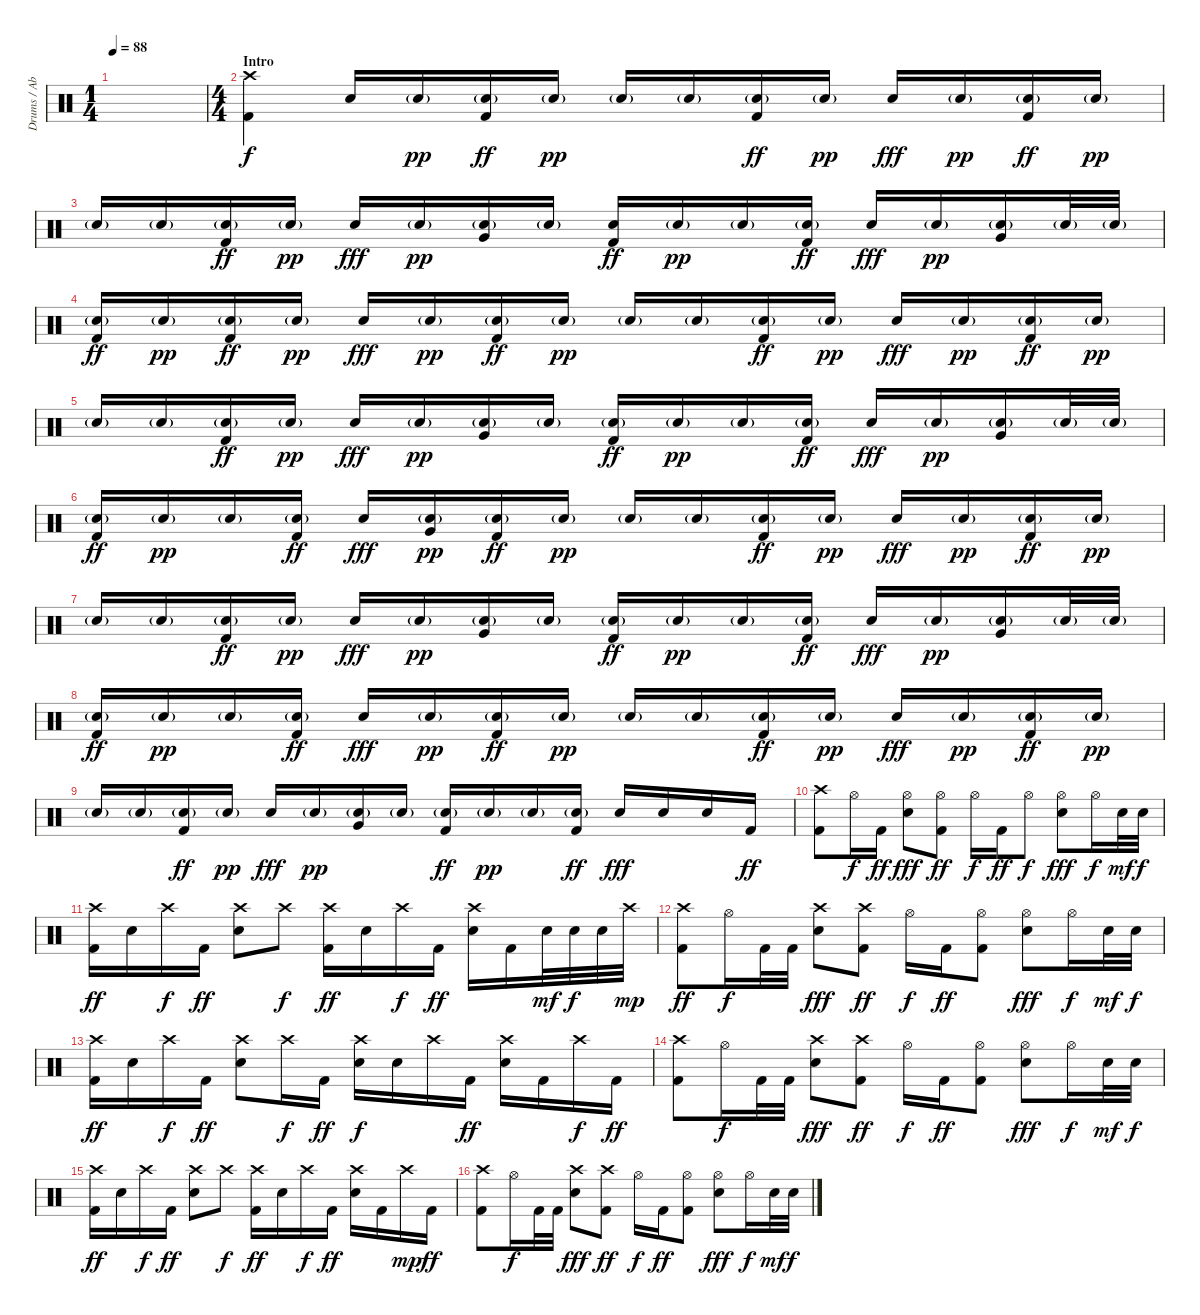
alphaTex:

\track ("Drums / Abe Cunningham" "Drums / Ab") {instrument percussion}
\staff {score}
\articulation defaults
\ts (1 4)
\tempo 88
\clef neutral
\ks c
|
\ts (4 4)
\section ("" "Intro")
("Crash high (hit)" "Kick (hit) 2").4 "Electric Snare (hit)".16 "Electric Snare (hit)"{g}.16{dy pp} ("Electric Snare (hit)"{g} "Kick (hit) 2").16{dy ff} "Electric Snare (hit)"{g}.16{dy pp} "Electric Snare (hit)"{g}.16 "Electric Snare (hit)"{g}.16 ("Electric Snare (hit)"{g} "Kick (hit) 2").16{dy ff} "Electric Snare (hit)"{g}.16{dy pp} "Electric Snare (hit)".16{dy fff} "Electric Snare (hit)"{g}.16{dy pp} ("Electric Snare (hit)"{g} "Kick (hit) 2").16{dy ff} "Electric Snare (hit)"{g}.16{dy pp} |
"Electric Snare (hit)"{g}.16 "Electric Snare (hit)"{g}.16 ("Electric Snare (hit)"{g} "Kick (hit) 2").16{dy ff} "Electric Snare (hit)"{g}.16{dy pp} "Electric Snare (hit)".16{dy fff} "Electric Snare (hit)"{g}.16{dy pp} ("Electric Snare (hit)"{g} "Very Low Tom (hit)").16 "Electric Snare (hit)"{g}.16 ("Electric Snare (hit)" "Kick (hit) 2").16{dy ff} "Electric Snare (hit)"{g}.16{dy pp} "Electric Snare (hit)"{g}.16 ("Electric Snare (hit)"{g} "Kick (hit) 2").16{dy ff} "Electric Snare (hit)".16{dy fff} "Electric Snare (hit)"{g}.16{dy pp} ("Electric Snare (hit)"{g} "Very Low Tom (hit)").16 "Electric Snare (hit)"{g}.32 "Electric Snare (hit)"{g}.32 |
("Electric Snare (hit)"{g} "Kick (hit) 2").16{dy ff} "Electric Snare (hit)"{g}.16{dy pp} ("Electric Snare (hit)"{g} "Kick (hit) 2").16{dy ff} "Electric Snare (hit)"{g}.16{dy pp} "Electric Snare (hit)".16{dy fff} "Electric Snare (hit)"{g}.16{dy pp} ("Electric Snare (hit)"{g} "Kick (hit) 2").16{dy ff} "Electric Snare (hit)"{g}.16{dy pp} "Electric Snare (hit)"{g}.16 "Electric Snare (hit)"{g}.16 ("Electric Snare (hit)"{g} "Kick (hit) 2").16{dy ff} "Electric Snare (hit)"{g}.16{dy pp} "Electric Snare (hit)".16{dy fff} "Electric Snare (hit)"{g}.16{dy pp} ("Electric Snare (hit)"{g} "Kick (hit) 2").16{dy ff} "Electric Snare (hit)"{g}.16{dy pp} |
"Electric Snare (hit)"{g}.16 "Electric Snare (hit)"{g}.16 ("Electric Snare (hit)"{g} "Kick (hit) 2").16{dy ff} "Electric Snare (hit)"{g}.16{dy pp} "Electric Snare (hit)".16{dy fff} "Electric Snare (hit)"{g}.16{dy pp} ("Electric Snare (hit)"{g} "Very Low Tom (hit)").16 "Electric Snare (hit)"{g}.16 ("Electric Snare (hit)"{g} "Kick (hit) 2").16{dy ff} "Electric Snare (hit)"{g}.16{dy pp} "Electric Snare (hit)"{g}.16 ("Electric Snare (hit)"{g} "Kick (hit) 2").16{dy ff} "Electric Snare (hit)".16{dy fff} "Electric Snare (hit)"{g}.16{dy pp} ("Electric Snare (hit)"{g} "Very Low Tom (hit)").16 "Electric Snare (hit)"{g}.32 "Electric Snare (hit)"{g}.32 |
("Electric Snare (hit)"{g} "Kick (hit) 2").16{dy ff} "Electric Snare (hit)"{g}.16{dy pp} "Electric Snare (hit)"{g}.16 ("Electric Snare (hit)"{g} "Kick (hit) 2").16{dy ff} "Electric Snare (hit)".16{dy fff} ("Electric Snare (hit)"{g} "Very Low Tom (hit)").16{dy pp} ("Electric Snare (hit)"{g} "Kick (hit) 2").16{dy ff} "Electric Snare (hit)"{g}.16{dy pp} "Electric Snare (hit)"{g}.16 "Electric Snare (hit)"{g}.16 ("Electric Snare (hit)"{g} "Kick (hit) 2").16{dy ff} "Electric Snare (hit)"{g}.16{dy pp} "Electric Snare (hit)".16{dy fff} "Electric Snare (hit)"{g}.16{dy pp} ("Electric Snare (hit)"{g} "Kick (hit) 2").16{dy ff} "Electric Snare (hit)"{g}.16{dy pp} |
"Electric Snare (hit)"{g}.16 "Electric Snare (hit)"{g}.16 ("Electric Snare (hit)"{g} "Kick (hit) 2").16{dy ff} "Electric Snare (hit)"{g}.16{dy pp} "Electric Snare (hit)".16{dy fff} "Electric Snare (hit)"{g}.16{dy pp} ("Electric Snare (hit)"{g} "Very Low Tom (hit)").16 "Electric Snare (hit)"{g}.16 ("Electric Snare (hit)"{g} "Kick (hit) 2").16{dy ff} "Electric Snare (hit)"{g}.16{dy pp} "Electric Snare (hit)"{g}.16 ("Electric Snare (hit)"{g} "Kick (hit) 2").16{dy ff} "Electric Snare (hit)".16{dy fff} "Electric Snare (hit)"{g}.16{dy pp} ("Electric Snare (hit)"{g} "Very Low Tom (hit)").16 "Electric Snare (hit)"{g}.32 "Electric Snare (hit)"{g}.32 |
("Electric Snare (hit)"{g} "Kick (hit) 2").16{dy ff} "Electric Snare (hit)"{g}.16{dy pp} "Electric Snare (hit)"{g}.16 ("Electric Snare (hit)"{g} "Kick (hit) 2").16{dy ff} "Electric Snare (hit)".16{dy fff} "Electric Snare (hit)"{g}.16{dy pp} ("Electric Snare (hit)"{g} "Kick (hit) 2").16{dy ff} "Electric Snare (hit)"{g}.16{dy pp} "Electric Snare (hit)"{g}.16 "Electric Snare (hit)"{g}.16 ("Electric Snare (hit)"{g} "Kick (hit) 2").16{dy ff} "Electric Snare (hit)"{g}.16{dy pp} "Electric Snare (hit)".16{dy fff} "Electric Snare (hit)"{g}.16{dy pp} ("Electric Snare (hit)"{g} "Kick (hit) 2").16{dy ff} "Electric Snare (hit)"{g}.16{dy pp} |
"Electric Snare (hit)"{g}.16 "Electric Snare (hit)"{g}.16 ("Electric Snare (hit)"{g} "Kick (hit) 2").16{dy ff} "Electric Snare (hit)"{g}.16{dy pp} "Electric Snare (hit)".16{dy fff} "Electric Snare (hit)"{g}.16{dy pp} ("Electric Snare (hit)"{g} "Very Low Tom (hit)").16 "Electric Snare (hit)"{g}.16 ("Electric Snare (hit)"{g} "Kick (hit) 2").16{dy ff} "Electric Snare (hit)"{g}.16{dy pp} "Electric Snare (hit)"{g}.16 ("Electric Snare (hit)"{g} "Kick (hit) 2").16{dy ff} "Electric Snare (hit)".16{dy fff} "Electric Snare (hit)".16 "Electric Snare (hit)".16 "Kick (hit) 2".16{dy ff} |
("Crash high (hit)" "Kick (hit) 2").8 "Hi-Hat (open)".16{dy f} "Kick (hit) 2".16{dy ff} ("Hi-Hat (open)" "Electric Snare (hit)").8{dy fff} ("Hi-Hat (open)" "Kick (hit) 2").8{dy ff} "Hi-Hat (open)".16{dy f} "Kick (hit) 2".16{dy ff} "Hi-Hat (open)".8{dy f} ("Hi-Hat (open)" "Electric Snare (hit)").8{dy fff} "Hi-Hat (open)".16{dy f} "Electric Snare (hit)".32{dy mf} "Electric Snare (hit)".32{dy f} |
("Crash high (hit)" "Kick (hit) 2").16{dy ff} "Electric Snare (hit)".16 "Crash high (hit)".16{dy f} "Kick (hit) 2".16{dy ff} ("Crash high (hit)" "Electric Snare (hit)").8 "Crash high (hit)".8{dy f} ("Crash high (hit)" "Kick (hit) 2").16{dy ff} "Electric Snare (hit)".16 "Crash high (hit)".16{dy f} "Kick (hit) 2".16{dy ff} ("Crash high (hit)" "Electric Snare (hit)").16 "Kick (hit) 2".16 "Electric Snare (hit)".32{dy mf} "Electric Snare (hit)".32{dy f} "Electric Snare (hit)".32 "Crash high (hit)".32{dy mp} |
("Crash high (hit)" "Kick (hit) 2").8{dy ff} "Hi-Hat (open)".16{dy f} "Kick (hit) 2".32 "Kick (hit) 2".32 ("Crash high (hit)" "Electric Snare (hit)").8{dy fff} ("Crash high (hit)" "Kick (hit) 2").8{dy ff} "Hi-Hat (open)".16{dy f} "Kick (hit) 2".16{dy ff} ("Hi-Hat (open)" "Kick (hit) 2").8 ("Hi-Hat (open)" "Electric Snare (hit)").8{dy fff} "Hi-Hat (open)".16{dy f} "Electric Snare (hit)".32{dy mf} "Electric Snare (hit)".32{dy f} |
("Crash high (hit)" "Kick (hit) 2").16{dy ff} "Electric Snare (hit)".16 "Crash high (hit)".16{dy f} "Kick (hit) 2".16{dy ff} ("Crash high (hit)" "Electric Snare (hit)").8 "Crash high (hit)".16{dy f} "Kick (hit) 2".16{dy ff} ("Crash high (hit)" "Electric Snare (hit)").16{dy f} "Electric Snare (hit)".16 "Crash high (hit)".16 "Kick (hit) 2".16{dy ff} ("Crash high (hit)" "Electric Snare (hit)").16 "Kick (hit) 2".16 "Crash high (hit)".16{dy f} "Kick (hit) 2".16{dy ff} |
("Crash high (hit)" "Kick (hit) 2").8 "Hi-Hat (open)".16{dy f} "Kick (hit) 2".32 "Kick (hit) 2".32 ("Crash high (hit)" "Electric Snare (hit)").8{dy fff} ("Crash high (hit)" "Kick (hit) 2").8{dy ff} "Hi-Hat (open)".16{dy f} "Kick (hit) 2".16{dy ff} ("Hi-Hat (open)" "Kick (hit) 2").8 ("Hi-Hat (open)" "Electric Snare (hit)").8{dy fff} "Hi-Hat (open)".16{dy f} "Electric Snare (hit)".32{dy mf} "Electric Snare (hit)".32{dy f} |
("Crash high (hit)" "Kick (hit) 2").16{dy ff} "Electric Snare (hit)".16 "Crash high (hit)".16{dy f} "Kick (hit) 2".16{dy ff} ("Crash high (hit)" "Electric Snare (hit)").8 "Crash high (hit)".8{dy f} ("Crash high (hit)" "Kick (hit) 2").16{dy ff} "Electric Snare (hit)".16 "Crash high (hit)".16{dy f} "Kick (hit) 2".16{dy ff} ("Crash high (hit)" "Electric Snare (hit)").16 "Kick (hit) 2".16 "Crash high (hit)".16{dy mp} "Kick (hit) 2".16{dy ff} |
("Crash high (hit)" "Kick (hit) 2").8 "Hi-Hat (open)".16{dy f} "Kick (hit) 2".32 "Kick (hit) 2".32 ("Crash high (hit)" "Electric Snare (hit)").8{dy fff} ("Crash high (hit)" "Kick (hit) 2").8{dy ff} "Hi-Hat (open)".16{dy f} "Kick (hit) 2".16{dy ff} ("Hi-Hat (open)" "Kick (hit) 2").8 ("Hi-Hat (open)" "Electric Snare (hit)").8{dy fff} "Hi-Hat (open)".16{dy f} "Electric Snare (hit)".32{dy mf} "Electric Snare (hit)".32{dy f}
